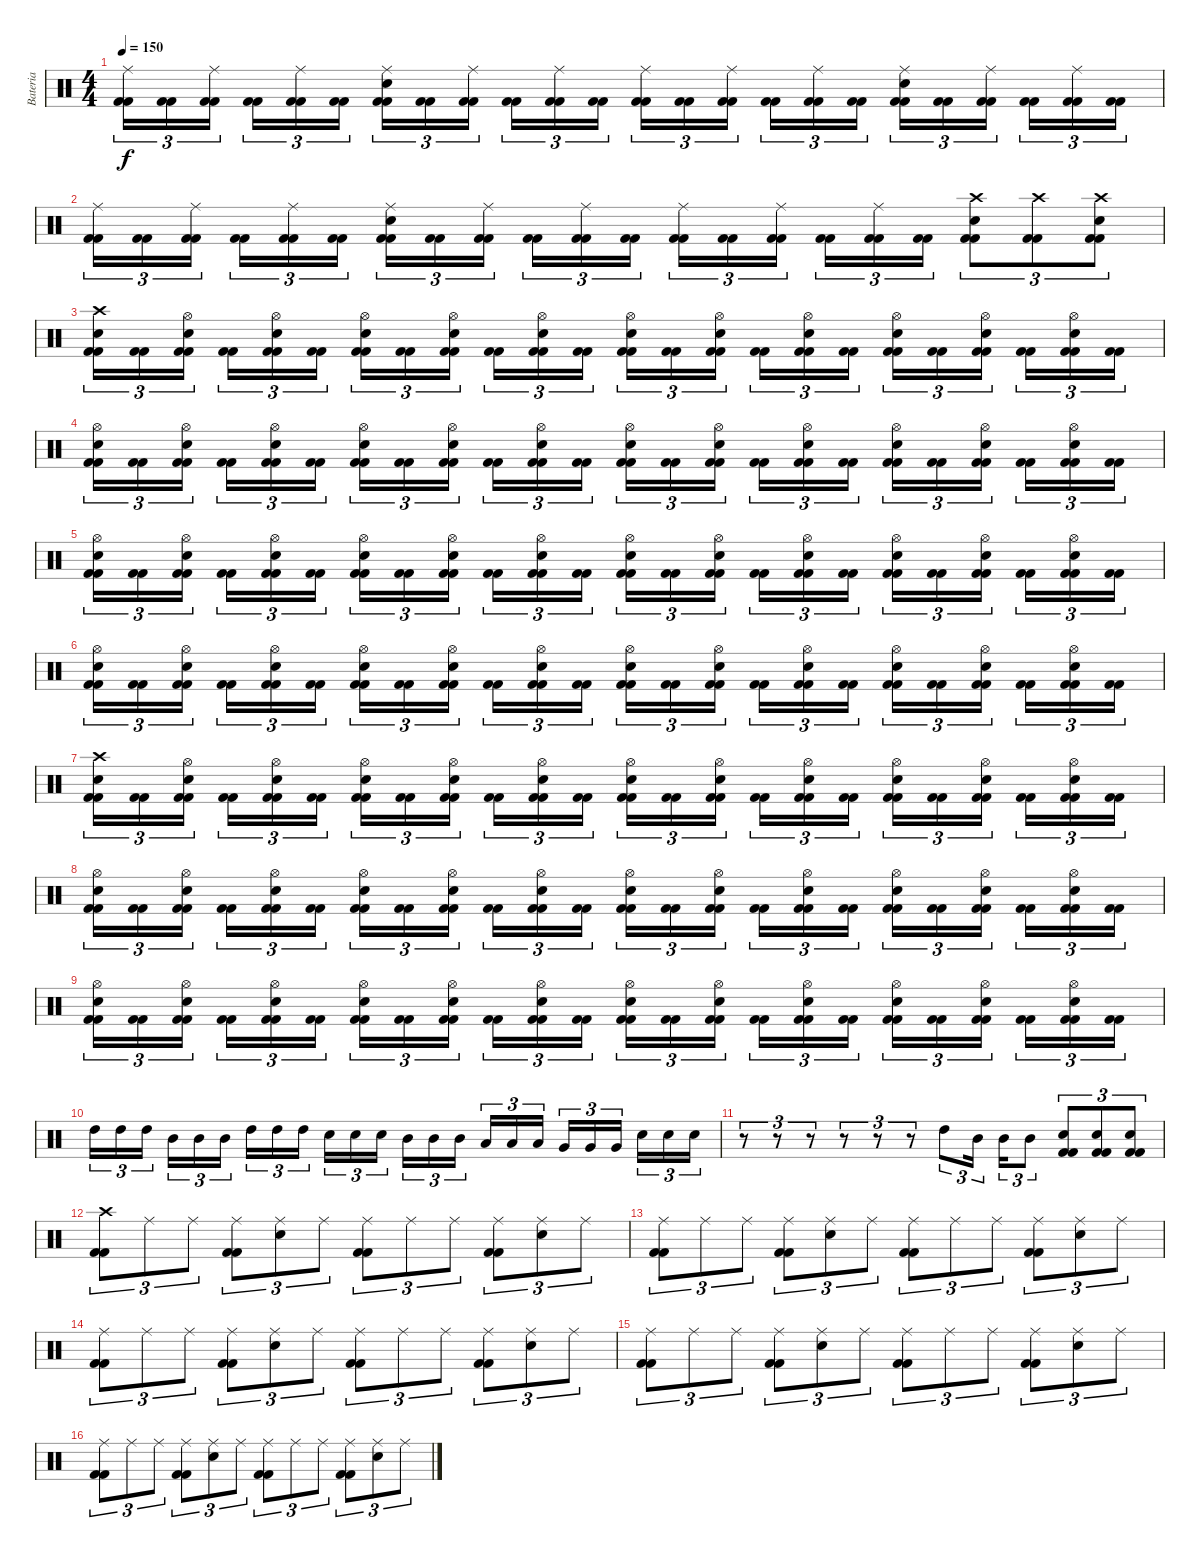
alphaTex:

\track ("Bateria" "Bateria") {instrument percussion}
\staff {score}
\articulation defaults
\ts (4 4)
\tempo 150
\clef neutral
\ks c
("Kick (hit) 2" "Kick (hit) 2" "Ride (middle)").16{tu (3 2) dy f} ("Kick (hit) 2" "Kick (hit) 2").16{tu (3 2)} ("Kick (hit) 2" "Kick (hit) 2" "Ride (middle)").16{tu (3 2)} ("Kick (hit) 2" "Kick (hit) 2").16{tu (3 2)} ("Kick (hit) 2" "Kick (hit) 2" "Ride (middle)").16{tu (3 2)} ("Kick (hit) 2" "Kick (hit) 2").16{tu (3 2)} ("Kick (hit) 2" "Kick (hit) 2" "Snare (hit) 2" "Ride (middle)").16{tu (3 2)} ("Kick (hit) 2" "Kick (hit) 2").16{tu (3 2)} ("Kick (hit) 2" "Kick (hit) 2" "Ride (middle)").16{tu (3 2)} ("Kick (hit) 2" "Kick (hit) 2").16{tu (3 2)} ("Kick (hit) 2" "Kick (hit) 2" "Ride (middle)").16{tu (3 2)} ("Kick (hit) 2" "Kick (hit) 2").16{tu (3 2)} ("Kick (hit) 2" "Kick (hit) 2" "Ride (middle)").16{tu (3 2)} ("Kick (hit) 2" "Kick (hit) 2").16{tu (3 2)} ("Kick (hit) 2" "Kick (hit) 2" "Ride (middle)").16{tu (3 2)} ("Kick (hit) 2" "Kick (hit) 2").16{tu (3 2)} ("Kick (hit) 2" "Kick (hit) 2" "Ride (middle)").16{tu (3 2)} ("Kick (hit) 2" "Kick (hit) 2").16{tu (3 2)} ("Kick (hit) 2" "Kick (hit) 2" "Snare (hit) 2" "Ride (middle)").16{tu (3 2)} ("Kick (hit) 2" "Kick (hit) 2").16{tu (3 2)} ("Kick (hit) 2" "Kick (hit) 2" "Ride (middle)").16{tu (3 2)} ("Kick (hit) 2" "Kick (hit) 2").16{tu (3 2)} ("Kick (hit) 2" "Kick (hit) 2" "Ride (middle)").16{tu (3 2)} ("Kick (hit) 2" "Kick (hit) 2").16{tu (3 2)} |
("Kick (hit) 2" "Kick (hit) 2" "Ride (middle)").16{tu (3 2)} ("Kick (hit) 2" "Kick (hit) 2").16{tu (3 2)} ("Kick (hit) 2" "Kick (hit) 2" "Ride (middle)").16{tu (3 2)} ("Kick (hit) 2" "Kick (hit) 2").16{tu (3 2)} ("Kick (hit) 2" "Kick (hit) 2" "Ride (middle)").16{tu (3 2)} ("Kick (hit) 2" "Kick (hit) 2").16{tu (3 2)} ("Kick (hit) 2" "Kick (hit) 2" "Snare (hit) 2" "Ride (middle)").16{tu (3 2)} ("Kick (hit) 2" "Kick (hit) 2").16{tu (3 2)} ("Kick (hit) 2" "Kick (hit) 2" "Ride (middle)").16{tu (3 2)} ("Kick (hit) 2" "Kick (hit) 2").16{tu (3 2)} ("Kick (hit) 2" "Kick (hit) 2" "Ride (middle)").16{tu (3 2)} ("Kick (hit) 2" "Kick (hit) 2").16{tu (3 2)} ("Kick (hit) 2" "Kick (hit) 2" "Ride (middle)").16{tu (3 2)} ("Kick (hit) 2" "Kick (hit) 2").16{tu (3 2)} ("Kick (hit) 2" "Kick (hit) 2" "Ride (middle)").16{tu (3 2)} ("Kick (hit) 2" "Kick (hit) 2").16{tu (3 2)} ("Kick (hit) 2" "Kick (hit) 2" "Ride (middle)").16{tu (3 2)} ("Kick (hit) 2" "Kick (hit) 2").16{tu (3 2)} ("Kick (hit) 2" "Kick (hit) 2" "Snare (hit) 2" "Crash high (hit)").8{tu (3 2)} ("Kick (hit) 2" "Kick (hit) 2" "Crash high (hit)").8{tu (3 2)} ("Kick (hit) 2" "Kick (hit) 2" "Snare (hit) 2" "Crash high (hit)").8{tu (3 2)} |
("Kick (hit) 2" "Kick (hit) 2" "Snare (hit) 2" "Crash high (hit)").16{tu (3 2)} ("Kick (hit) 2" "Kick (hit) 2").16{tu (3 2)} ("Kick (hit) 2" "Kick (hit) 2" "Snare (hit) 2" "Hi-Hat (open)").16{tu (3 2)} ("Kick (hit) 2" "Kick (hit) 2").16{tu (3 2)} ("Kick (hit) 2" "Kick (hit) 2" "Snare (hit) 2" "Hi-Hat (open)").16{tu (3 2)} ("Kick (hit) 2" "Kick (hit) 2").16{tu (3 2)} ("Kick (hit) 2" "Kick (hit) 2" "Snare (hit) 2" "Hi-Hat (open)").16{tu (3 2)} ("Kick (hit) 2" "Kick (hit) 2").16{tu (3 2)} ("Kick (hit) 2" "Kick (hit) 2" "Snare (hit) 2" "Hi-Hat (open)").16{tu (3 2)} ("Kick (hit) 2" "Kick (hit) 2").16{tu (3 2)} ("Kick (hit) 2" "Kick (hit) 2" "Snare (hit) 2" "Hi-Hat (open)").16{tu (3 2)} ("Kick (hit) 2" "Kick (hit) 2").16{tu (3 2)} ("Kick (hit) 2" "Kick (hit) 2" "Snare (hit) 2" "Hi-Hat (open)").16{tu (3 2)} ("Kick (hit) 2" "Kick (hit) 2").16{tu (3 2)} ("Kick (hit) 2" "Kick (hit) 2" "Snare (hit) 2" "Hi-Hat (open)").16{tu (3 2)} ("Kick (hit) 2" "Kick (hit) 2").16{tu (3 2)} ("Kick (hit) 2" "Kick (hit) 2" "Snare (hit) 2" "Hi-Hat (open)").16{tu (3 2)} ("Kick (hit) 2" "Kick (hit) 2").16{tu (3 2)} ("Kick (hit) 2" "Kick (hit) 2" "Snare (hit) 2" "Hi-Hat (open)").16{tu (3 2)} ("Kick (hit) 2" "Kick (hit) 2").16{tu (3 2)} ("Kick (hit) 2" "Kick (hit) 2" "Snare (hit) 2" "Hi-Hat (open)").16{tu (3 2)} ("Kick (hit) 2" "Kick (hit) 2").16{tu (3 2)} ("Kick (hit) 2" "Kick (hit) 2" "Snare (hit) 2" "Hi-Hat (open)").16{tu (3 2)} ("Kick (hit) 2" "Kick (hit) 2").16{tu (3 2)} |
("Kick (hit) 2" "Kick (hit) 2" "Snare (hit) 2" "Hi-Hat (open)").16{tu (3 2)} ("Kick (hit) 2" "Kick (hit) 2").16{tu (3 2)} ("Kick (hit) 2" "Kick (hit) 2" "Snare (hit) 2" "Hi-Hat (open)").16{tu (3 2)} ("Kick (hit) 2" "Kick (hit) 2").16{tu (3 2)} ("Kick (hit) 2" "Kick (hit) 2" "Snare (hit) 2" "Hi-Hat (open)").16{tu (3 2)} ("Kick (hit) 2" "Kick (hit) 2").16{tu (3 2)} ("Kick (hit) 2" "Kick (hit) 2" "Snare (hit) 2" "Hi-Hat (open)").16{tu (3 2)} ("Kick (hit) 2" "Kick (hit) 2").16{tu (3 2)} ("Kick (hit) 2" "Kick (hit) 2" "Snare (hit) 2" "Hi-Hat (open)").16{tu (3 2)} ("Kick (hit) 2" "Kick (hit) 2").16{tu (3 2)} ("Kick (hit) 2" "Kick (hit) 2" "Snare (hit) 2" "Hi-Hat (open)").16{tu (3 2)} ("Kick (hit) 2" "Kick (hit) 2").16{tu (3 2)} ("Kick (hit) 2" "Kick (hit) 2" "Snare (hit) 2" "Hi-Hat (open)").16{tu (3 2)} ("Kick (hit) 2" "Kick (hit) 2").16{tu (3 2)} ("Kick (hit) 2" "Kick (hit) 2" "Snare (hit) 2" "Hi-Hat (open)").16{tu (3 2)} ("Kick (hit) 2" "Kick (hit) 2").16{tu (3 2)} ("Kick (hit) 2" "Kick (hit) 2" "Snare (hit) 2" "Hi-Hat (open)").16{tu (3 2)} ("Kick (hit) 2" "Kick (hit) 2").16{tu (3 2)} ("Kick (hit) 2" "Kick (hit) 2" "Snare (hit) 2" "Hi-Hat (open)").16{tu (3 2)} ("Kick (hit) 2" "Kick (hit) 2").16{tu (3 2)} ("Kick (hit) 2" "Kick (hit) 2" "Snare (hit) 2" "Hi-Hat (open)").16{tu (3 2)} ("Kick (hit) 2" "Kick (hit) 2").16{tu (3 2)} ("Kick (hit) 2" "Kick (hit) 2" "Snare (hit) 2" "Hi-Hat (open)").16{tu (3 2)} ("Kick (hit) 2" "Kick (hit) 2").16{tu (3 2)} |
("Kick (hit) 2" "Kick (hit) 2" "Snare (hit) 2" "Hi-Hat (open)").16{tu (3 2)} ("Kick (hit) 2" "Kick (hit) 2").16{tu (3 2)} ("Kick (hit) 2" "Kick (hit) 2" "Snare (hit) 2" "Hi-Hat (open)").16{tu (3 2)} ("Kick (hit) 2" "Kick (hit) 2").16{tu (3 2)} ("Kick (hit) 2" "Kick (hit) 2" "Snare (hit) 2" "Hi-Hat (open)").16{tu (3 2)} ("Kick (hit) 2" "Kick (hit) 2").16{tu (3 2)} ("Kick (hit) 2" "Kick (hit) 2" "Snare (hit) 2" "Hi-Hat (open)").16{tu (3 2)} ("Kick (hit) 2" "Kick (hit) 2").16{tu (3 2)} ("Kick (hit) 2" "Kick (hit) 2" "Snare (hit) 2" "Hi-Hat (open)").16{tu (3 2)} ("Kick (hit) 2" "Kick (hit) 2").16{tu (3 2)} ("Kick (hit) 2" "Kick (hit) 2" "Snare (hit) 2" "Hi-Hat (open)").16{tu (3 2)} ("Kick (hit) 2" "Kick (hit) 2").16{tu (3 2)} ("Kick (hit) 2" "Kick (hit) 2" "Snare (hit) 2" "Hi-Hat (open)").16{tu (3 2)} ("Kick (hit) 2" "Kick (hit) 2").16{tu (3 2)} ("Kick (hit) 2" "Kick (hit) 2" "Snare (hit) 2" "Hi-Hat (open)").16{tu (3 2)} ("Kick (hit) 2" "Kick (hit) 2").16{tu (3 2)} ("Kick (hit) 2" "Kick (hit) 2" "Snare (hit) 2" "Hi-Hat (open)").16{tu (3 2)} ("Kick (hit) 2" "Kick (hit) 2").16{tu (3 2)} ("Kick (hit) 2" "Kick (hit) 2" "Snare (hit) 2" "Hi-Hat (open)").16{tu (3 2)} ("Kick (hit) 2" "Kick (hit) 2").16{tu (3 2)} ("Kick (hit) 2" "Kick (hit) 2" "Snare (hit) 2" "Hi-Hat (open)").16{tu (3 2)} ("Kick (hit) 2" "Kick (hit) 2").16{tu (3 2)} ("Kick (hit) 2" "Kick (hit) 2" "Snare (hit) 2" "Hi-Hat (open)").16{tu (3 2)} ("Kick (hit) 2" "Kick (hit) 2").16{tu (3 2)} |
("Kick (hit) 2" "Kick (hit) 2" "Snare (hit) 2" "Hi-Hat (open)").16{tu (3 2)} ("Kick (hit) 2" "Kick (hit) 2").16{tu (3 2)} ("Kick (hit) 2" "Kick (hit) 2" "Snare (hit) 2" "Hi-Hat (open)").16{tu (3 2)} ("Kick (hit) 2" "Kick (hit) 2").16{tu (3 2)} ("Kick (hit) 2" "Kick (hit) 2" "Snare (hit) 2" "Hi-Hat (open)").16{tu (3 2)} ("Kick (hit) 2" "Kick (hit) 2").16{tu (3 2)} ("Kick (hit) 2" "Kick (hit) 2" "Snare (hit) 2" "Hi-Hat (open)").16{tu (3 2)} ("Kick (hit) 2" "Kick (hit) 2").16{tu (3 2)} ("Kick (hit) 2" "Kick (hit) 2" "Snare (hit) 2" "Hi-Hat (open)").16{tu (3 2)} ("Kick (hit) 2" "Kick (hit) 2").16{tu (3 2)} ("Kick (hit) 2" "Kick (hit) 2" "Snare (hit) 2" "Hi-Hat (open)").16{tu (3 2)} ("Kick (hit) 2" "Kick (hit) 2").16{tu (3 2)} ("Kick (hit) 2" "Kick (hit) 2" "Snare (hit) 2" "Hi-Hat (open)").16{tu (3 2)} ("Kick (hit) 2" "Kick (hit) 2").16{tu (3 2)} ("Kick (hit) 2" "Kick (hit) 2" "Snare (hit) 2" "Hi-Hat (open)").16{tu (3 2)} ("Kick (hit) 2" "Kick (hit) 2").16{tu (3 2)} ("Kick (hit) 2" "Kick (hit) 2" "Snare (hit) 2" "Hi-Hat (open)").16{tu (3 2)} ("Kick (hit) 2" "Kick (hit) 2").16{tu (3 2)} ("Kick (hit) 2" "Kick (hit) 2" "Snare (hit) 2" "Hi-Hat (open)").16{tu (3 2)} ("Kick (hit) 2" "Kick (hit) 2").16{tu (3 2)} ("Kick (hit) 2" "Kick (hit) 2" "Snare (hit) 2" "Hi-Hat (open)").16{tu (3 2)} ("Kick (hit) 2" "Kick (hit) 2").16{tu (3 2)} ("Kick (hit) 2" "Kick (hit) 2" "Snare (hit) 2" "Hi-Hat (open)").16{tu (3 2)} ("Kick (hit) 2" "Kick (hit) 2").16{tu (3 2)} |
("Kick (hit) 2" "Kick (hit) 2" "Snare (hit) 2" "Crash high (hit)").16{tu (3 2)} ("Kick (hit) 2" "Kick (hit) 2").16{tu (3 2)} ("Kick (hit) 2" "Kick (hit) 2" "Snare (hit) 2" "Hi-Hat (open)").16{tu (3 2)} ("Kick (hit) 2" "Kick (hit) 2").16{tu (3 2)} ("Kick (hit) 2" "Kick (hit) 2" "Snare (hit) 2" "Hi-Hat (open)").16{tu (3 2)} ("Kick (hit) 2" "Kick (hit) 2").16{tu (3 2)} ("Kick (hit) 2" "Kick (hit) 2" "Snare (hit) 2" "Hi-Hat (open)").16{tu (3 2)} ("Kick (hit) 2" "Kick (hit) 2").16{tu (3 2)} ("Kick (hit) 2" "Kick (hit) 2" "Snare (hit) 2" "Hi-Hat (open)").16{tu (3 2)} ("Kick (hit) 2" "Kick (hit) 2").16{tu (3 2)} ("Kick (hit) 2" "Kick (hit) 2" "Snare (hit) 2" "Hi-Hat (open)").16{tu (3 2)} ("Kick (hit) 2" "Kick (hit) 2").16{tu (3 2)} ("Kick (hit) 2" "Kick (hit) 2" "Snare (hit) 2" "Hi-Hat (open)").16{tu (3 2)} ("Kick (hit) 2" "Kick (hit) 2").16{tu (3 2)} ("Kick (hit) 2" "Kick (hit) 2" "Snare (hit) 2" "Hi-Hat (open)").16{tu (3 2)} ("Kick (hit) 2" "Kick (hit) 2").16{tu (3 2)} ("Kick (hit) 2" "Kick (hit) 2" "Snare (hit) 2" "Hi-Hat (open)").16{tu (3 2)} ("Kick (hit) 2" "Kick (hit) 2").16{tu (3 2)} ("Kick (hit) 2" "Kick (hit) 2" "Snare (hit) 2" "Hi-Hat (open)").16{tu (3 2)} ("Kick (hit) 2" "Kick (hit) 2").16{tu (3 2)} ("Kick (hit) 2" "Kick (hit) 2" "Snare (hit) 2" "Hi-Hat (open)").16{tu (3 2)} ("Kick (hit) 2" "Kick (hit) 2").16{tu (3 2)} ("Kick (hit) 2" "Kick (hit) 2" "Snare (hit) 2" "Hi-Hat (open)").16{tu (3 2)} ("Kick (hit) 2" "Kick (hit) 2").16{tu (3 2)} |
("Kick (hit) 2" "Kick (hit) 2" "Snare (hit) 2" "Hi-Hat (open)").16{tu (3 2)} ("Kick (hit) 2" "Kick (hit) 2").16{tu (3 2)} ("Kick (hit) 2" "Kick (hit) 2" "Snare (hit) 2" "Hi-Hat (open)").16{tu (3 2)} ("Kick (hit) 2" "Kick (hit) 2").16{tu (3 2)} ("Kick (hit) 2" "Kick (hit) 2" "Snare (hit) 2" "Hi-Hat (open)").16{tu (3 2)} ("Kick (hit) 2" "Kick (hit) 2").16{tu (3 2)} ("Kick (hit) 2" "Kick (hit) 2" "Snare (hit) 2" "Hi-Hat (open)").16{tu (3 2)} ("Kick (hit) 2" "Kick (hit) 2").16{tu (3 2)} ("Kick (hit) 2" "Kick (hit) 2" "Snare (hit) 2" "Hi-Hat (open)").16{tu (3 2)} ("Kick (hit) 2" "Kick (hit) 2").16{tu (3 2)} ("Kick (hit) 2" "Kick (hit) 2" "Snare (hit) 2" "Hi-Hat (open)").16{tu (3 2)} ("Kick (hit) 2" "Kick (hit) 2").16{tu (3 2)} ("Kick (hit) 2" "Kick (hit) 2" "Snare (hit) 2" "Hi-Hat (open)").16{tu (3 2)} ("Kick (hit) 2" "Kick (hit) 2").16{tu (3 2)} ("Kick (hit) 2" "Kick (hit) 2" "Snare (hit) 2" "Hi-Hat (open)").16{tu (3 2)} ("Kick (hit) 2" "Kick (hit) 2").16{tu (3 2)} ("Kick (hit) 2" "Kick (hit) 2" "Snare (hit) 2" "Hi-Hat (open)").16{tu (3 2)} ("Kick (hit) 2" "Kick (hit) 2").16{tu (3 2)} ("Kick (hit) 2" "Kick (hit) 2" "Snare (hit) 2" "Hi-Hat (open)").16{tu (3 2)} ("Kick (hit) 2" "Kick (hit) 2").16{tu (3 2)} ("Kick (hit) 2" "Kick (hit) 2" "Snare (hit) 2" "Hi-Hat (open)").16{tu (3 2)} ("Kick (hit) 2" "Kick (hit) 2").16{tu (3 2)} ("Kick (hit) 2" "Kick (hit) 2" "Snare (hit) 2" "Hi-Hat (open)").16{tu (3 2)} ("Kick (hit) 2" "Kick (hit) 2").16{tu (3 2)} |
("Kick (hit) 2" "Kick (hit) 2" "Snare (hit) 2" "Hi-Hat (open)").16{tu (3 2)} ("Kick (hit) 2" "Kick (hit) 2").16{tu (3 2)} ("Kick (hit) 2" "Kick (hit) 2" "Snare (hit) 2" "Hi-Hat (open)").16{tu (3 2)} ("Kick (hit) 2" "Kick (hit) 2").16{tu (3 2)} ("Kick (hit) 2" "Kick (hit) 2" "Snare (hit) 2" "Hi-Hat (open)").16{tu (3 2)} ("Kick (hit) 2" "Kick (hit) 2").16{tu (3 2)} ("Kick (hit) 2" "Kick (hit) 2" "Snare (hit) 2" "Hi-Hat (open)").16{tu (3 2)} ("Kick (hit) 2" "Kick (hit) 2").16{tu (3 2)} ("Kick (hit) 2" "Kick (hit) 2" "Snare (hit) 2" "Hi-Hat (open)").16{tu (3 2)} ("Kick (hit) 2" "Kick (hit) 2").16{tu (3 2)} ("Kick (hit) 2" "Kick (hit) 2" "Snare (hit) 2" "Hi-Hat (open)").16{tu (3 2)} ("Kick (hit) 2" "Kick (hit) 2").16{tu (3 2)} ("Kick (hit) 2" "Kick (hit) 2" "Snare (hit) 2" "Hi-Hat (open)").16{tu (3 2)} ("Kick (hit) 2" "Kick (hit) 2").16{tu (3 2)} ("Kick (hit) 2" "Kick (hit) 2" "Snare (hit) 2" "Hi-Hat (open)").16{tu (3 2)} ("Kick (hit) 2" "Kick (hit) 2").16{tu (3 2)} ("Kick (hit) 2" "Kick (hit) 2" "Snare (hit) 2" "Hi-Hat (open)").16{tu (3 2)} ("Kick (hit) 2" "Kick (hit) 2").16{tu (3 2)} ("Kick (hit) 2" "Kick (hit) 2" "Snare (hit) 2" "Hi-Hat (open)").16{tu (3 2)} ("Kick (hit) 2" "Kick (hit) 2").16{tu (3 2)} ("Kick (hit) 2" "Kick (hit) 2" "Snare (hit) 2" "Hi-Hat (open)").16{tu (3 2)} ("Kick (hit) 2" "Kick (hit) 2").16{tu (3 2)} ("Kick (hit) 2" "Kick (hit) 2" "Snare (hit) 2" "Hi-Hat (open)").16{tu (3 2)} ("Kick (hit) 2" "Kick (hit) 2").16{tu (3 2)} |
"High Tom (hit)".16{tu (3 2)} "High Tom (hit)".16{tu (3 2)} "High Tom (hit)".16{tu (3 2)} "Mid Tom (hit)".16{tu (3 2)} "Mid Tom (hit)".16{tu (3 2)} "Mid Tom (hit)".16{tu (3 2)} "High Tom (hit)".16{tu (3 2)} "High Tom (hit)".16{tu (3 2)} "High Tom (hit)".16{tu (3 2)} "Snare (hit) 2".16{tu (3 2)} "Snare (hit) 2".16{tu (3 2)} "Snare (hit) 2".16{tu (3 2)} "Mid Tom (hit)".16{tu (3 2)} "Mid Tom (hit)".16{tu (3 2)} "Mid Tom (hit)".16{tu (3 2)} "Low Tom (hit)".16{tu (3 2)} "Low Tom (hit)".16{tu (3 2)} "Low Tom (hit)".16{tu (3 2)} "Very Low Tom (hit)".16{tu (3 2)} "Very Low Tom (hit)".16{tu (3 2)} "Very Low Tom (hit)".16{tu (3 2)} "Snare (hit) 2".16{tu (3 2)} "Snare (hit) 2".16{tu (3 2)} "Snare (hit) 2".16{tu (3 2)} |
r.8{tu (3 2)} r.8{tu (3 2)} r.8{tu (3 2)} r.8{tu (3 2)} r.8{tu (3 2)} r.8{tu (3 2)} "High Tom (hit)".8{tu (3 2)} "Mid Tom (hit)".16{tu (3 2)} "Mid Tom (hit)".16{tu (3 2)} "Mid Tom (hit)".8{tu (3 2)} ("Kick (hit) 2" "Kick (hit) 2" "Snare (hit) 2").8{tu (3 2)} ("Kick (hit) 2" "Kick (hit) 2" "Snare (hit) 2").8{tu (3 2)} ("Kick (hit) 2" "Kick (hit) 2" "Snare (hit) 2").8{tu (3 2)} |
("Kick (hit) 2" "Kick (hit) 2" "Crash high (hit)").8{tu (3 2)} "Ride (middle)".8{tu (3 2)} "Ride (middle)".8{tu (3 2)} ("Kick (hit) 2" "Kick (hit) 2" "Ride (middle)").8{tu (3 2)} ("Snare (hit) 2" "Ride (middle)").8{tu (3 2)} "Ride (middle)".8{tu (3 2)} ("Kick (hit) 2" "Kick (hit) 2" "Ride (middle)").8{tu (3 2)} "Ride (middle)".8{tu (3 2)} "Ride (middle)".8{tu (3 2)} ("Kick (hit) 2" "Kick (hit) 2" "Ride (middle)").8{tu (3 2)} ("Snare (hit) 2" "Ride (middle)").8{tu (3 2)} "Ride (middle)".8{tu (3 2)} |
("Kick (hit) 2" "Kick (hit) 2" "Ride (middle)").8{tu (3 2)} "Ride (middle)".8{tu (3 2)} "Ride (middle)".8{tu (3 2)} ("Kick (hit) 2" "Kick (hit) 2" "Ride (middle)").8{tu (3 2)} ("Snare (hit) 2" "Ride (middle)").8{tu (3 2)} "Ride (middle)".8{tu (3 2)} ("Kick (hit) 2" "Kick (hit) 2" "Ride (middle)").8{tu (3 2)} "Ride (middle)".8{tu (3 2)} "Ride (middle)".8{tu (3 2)} ("Kick (hit) 2" "Kick (hit) 2" "Ride (middle)").8{tu (3 2)} ("Snare (hit) 2" "Ride (middle)").8{tu (3 2)} "Ride (middle)".8{tu (3 2)} |
("Kick (hit) 2" "Kick (hit) 2" "Ride (middle)").8{tu (3 2)} "Ride (middle)".8{tu (3 2)} "Ride (middle)".8{tu (3 2)} ("Kick (hit) 2" "Kick (hit) 2" "Ride (middle)").8{tu (3 2)} ("Snare (hit) 2" "Ride (middle)").8{tu (3 2)} "Ride (middle)".8{tu (3 2)} ("Kick (hit) 2" "Kick (hit) 2" "Ride (middle)").8{tu (3 2)} "Ride (middle)".8{tu (3 2)} "Ride (middle)".8{tu (3 2)} ("Kick (hit) 2" "Kick (hit) 2" "Ride (middle)").8{tu (3 2)} ("Snare (hit) 2" "Ride (middle)").8{tu (3 2)} "Ride (middle)".8{tu (3 2)} |
("Kick (hit) 2" "Kick (hit) 2" "Ride (middle)").8{tu (3 2)} "Ride (middle)".8{tu (3 2)} "Ride (middle)".8{tu (3 2)} ("Kick (hit) 2" "Kick (hit) 2" "Ride (middle)").8{tu (3 2)} ("Snare (hit) 2" "Ride (middle)").8{tu (3 2)} "Ride (middle)".8{tu (3 2)} ("Kick (hit) 2" "Kick (hit) 2" "Ride (middle)").8{tu (3 2)} "Ride (middle)".8{tu (3 2)} "Ride (middle)".8{tu (3 2)} ("Kick (hit) 2" "Kick (hit) 2" "Ride (middle)").8{tu (3 2)} ("Snare (hit) 2" "Ride (middle)").8{tu (3 2)} "Ride (middle)".8{tu (3 2)} |
("Kick (hit) 2" "Kick (hit) 2" "Ride (middle)").8{tu (3 2)} "Ride (middle)".8{tu (3 2)} "Ride (middle)".8{tu (3 2)} ("Kick (hit) 2" "Kick (hit) 2" "Ride (middle)").8{tu (3 2)} ("Snare (hit) 2" "Ride (middle)").8{tu (3 2)} "Ride (middle)".8{tu (3 2)} ("Kick (hit) 2" "Kick (hit) 2" "Ride (middle)").8{tu (3 2)} "Ride (middle)".8{tu (3 2)} "Ride (middle)".8{tu (3 2)} ("Kick (hit) 2" "Kick (hit) 2" "Ride (middle)").8{tu (3 2)} ("Snare (hit) 2" "Ride (middle)").8{tu (3 2)} "Ride (middle)".8{tu (3 2)}
